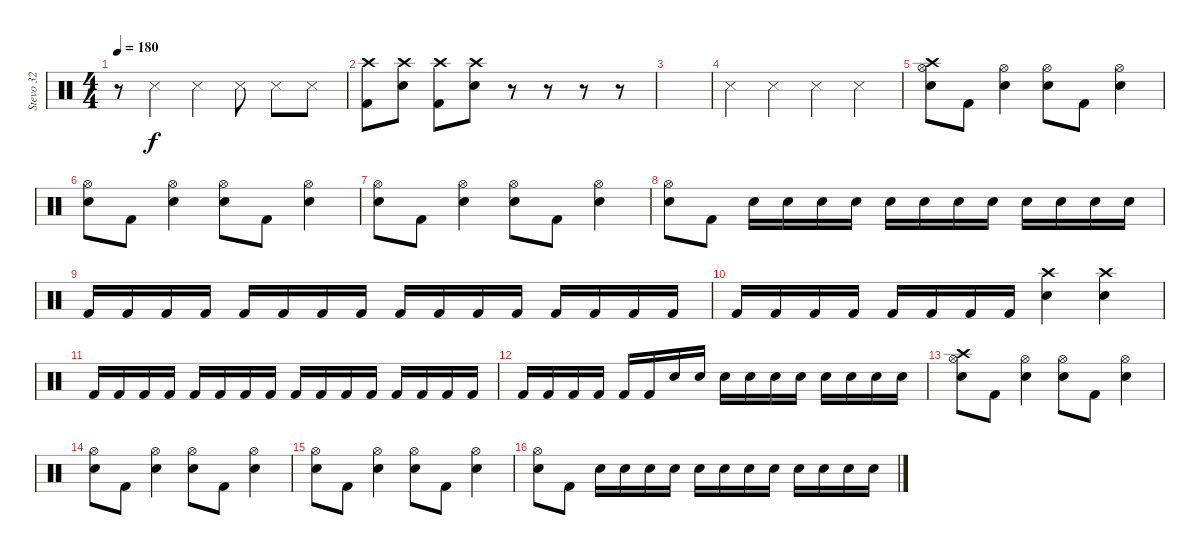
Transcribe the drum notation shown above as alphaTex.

\track ("Stevo 32" "Stevo 32") {instrument percussion}
\staff {score}
\articulation defaults
\ts (4 4)
\tempo 180
\clef neutral
\ks c
r.8{dy f} "Snare (side stick) 3".4 "Snare (side stick) 3".4 "Snare (side stick) 3".8 "Snare (side stick) 3".8 "Snare (side stick) 3".8 |
("Crash high (hit)" "Kick (hit) 2").8 ("Crash high (hit)" "Snare (hit) 2").8 ("Crash high (hit)" "Kick (hit) 2").8 ("Crash high (hit)" "Snare (hit) 2").8 r.8 r.8 r.8 r.8 |
|
"Snare (side stick) 3".4 "Snare (side stick) 3".4 "Snare (side stick) 3".4 "Snare (side stick) 3".4 |
("Hi-Hat (open)" "Crash high (hit)" "Snare (hit) 2").8 "Kick (hit) 2".8 ("Hi-Hat (open)" "Snare (hit) 2").4 ("Hi-Hat (open)" "Snare (hit) 2").8 "Kick (hit) 2".8 ("Hi-Hat (open)" "Snare (hit) 2").4 |
("Hi-Hat (open)" "Snare (hit) 2").8 "Kick (hit) 2".8 ("Hi-Hat (open)" "Snare (hit) 2").4 ("Hi-Hat (open)" "Snare (hit) 2").8 "Kick (hit) 2".8 ("Hi-Hat (open)" "Snare (hit) 2").4 |
("Hi-Hat (open)" "Snare (hit) 2").8 "Kick (hit) 2".8 ("Hi-Hat (open)" "Snare (hit) 2").4 ("Hi-Hat (open)" "Snare (hit) 2").8 "Kick (hit) 2".8 ("Hi-Hat (open)" "Snare (hit) 2").4 |
("Hi-Hat (open)" "Snare (hit) 2").8 "Kick (hit) 2".8 "Snare (hit) 2".16 "Snare (hit) 2".16 "Snare (hit) 2".16 "Snare (hit) 2".16 "Snare (hit) 2".16 "Snare (hit) 2".16 "Snare (hit) 2".16 "Snare (hit) 2".16 "Snare (hit) 2".16 "Snare (hit) 2".16 "Snare (hit) 2".16 "Snare (hit) 2".16 |
"Kick (hit) 2".16 "Kick (hit) 2".16 "Kick (hit) 2".16 "Kick (hit) 2".16 "Kick (hit) 2".16 "Kick (hit) 2".16 "Kick (hit) 2".16 "Kick (hit) 2".16 "Kick (hit) 2".16 "Kick (hit) 2".16 "Kick (hit) 2".16 "Kick (hit) 2".16 "Kick (hit) 2".16 "Kick (hit) 2".16 "Kick (hit) 2".16 "Kick (hit) 2".16 |
"Kick (hit) 2".16 "Kick (hit) 2".16 "Kick (hit) 2".16 "Kick (hit) 2".16 "Kick (hit) 2".16 "Kick (hit) 2".16 "Kick (hit) 2".16 "Kick (hit) 2".16 ("Crash high (hit)" "Snare (hit) 2").4 ("Crash high (hit)" "Snare (hit) 2").4 |
"Kick (hit) 2".16 "Kick (hit) 2".16 "Kick (hit) 2".16 "Kick (hit) 2".16 "Kick (hit) 2".16 "Kick (hit) 2".16 "Kick (hit) 2".16 "Kick (hit) 2".16 "Kick (hit) 2".16 "Kick (hit) 2".16 "Kick (hit) 2".16 "Kick (hit) 2".16 "Kick (hit) 2".16 "Kick (hit) 2".16 "Kick (hit) 2".16 "Kick (hit) 2".16 |
"Kick (hit) 2".16 "Kick (hit) 2".16 "Kick (hit) 2".16 "Kick (hit) 2".16 "Kick (hit) 2".16 "Kick (hit) 2".16 "Snare (hit) 2".16 "Snare (hit) 2".16 "Snare (hit) 2".16 "Snare (hit) 2".16 "Snare (hit) 2".16 "Snare (hit) 2".16 "Snare (hit) 2".16 "Snare (hit) 2".16 "Snare (hit) 2".16 "Snare (hit) 2".16 |
("Hi-Hat (open)" "Crash high (hit)" "Snare (hit) 2").8 "Kick (hit) 2".8 ("Hi-Hat (open)" "Snare (hit) 2").4 ("Hi-Hat (open)" "Snare (hit) 2").8 "Kick (hit) 2".8 ("Hi-Hat (open)" "Snare (hit) 2").4 |
("Hi-Hat (open)" "Snare (hit) 2").8 "Kick (hit) 2".8 ("Hi-Hat (open)" "Snare (hit) 2").4 ("Hi-Hat (open)" "Snare (hit) 2").8 "Kick (hit) 2".8 ("Hi-Hat (open)" "Snare (hit) 2").4 |
("Hi-Hat (open)" "Snare (hit) 2").8 "Kick (hit) 2".8 ("Hi-Hat (open)" "Snare (hit) 2").4 ("Hi-Hat (open)" "Snare (hit) 2").8 "Kick (hit) 2".8 ("Hi-Hat (open)" "Snare (hit) 2").4 |
("Hi-Hat (open)" "Snare (hit) 2").8 "Kick (hit) 2".8 "Snare (hit) 2".16 "Snare (hit) 2".16 "Snare (hit) 2".16 "Snare (hit) 2".16 "Snare (hit) 2".16 "Snare (hit) 2".16 "Snare (hit) 2".16 "Snare (hit) 2".16 "Snare (hit) 2".16 "Snare (hit) 2".16 "Snare (hit) 2".16 "Snare (hit) 2".16
